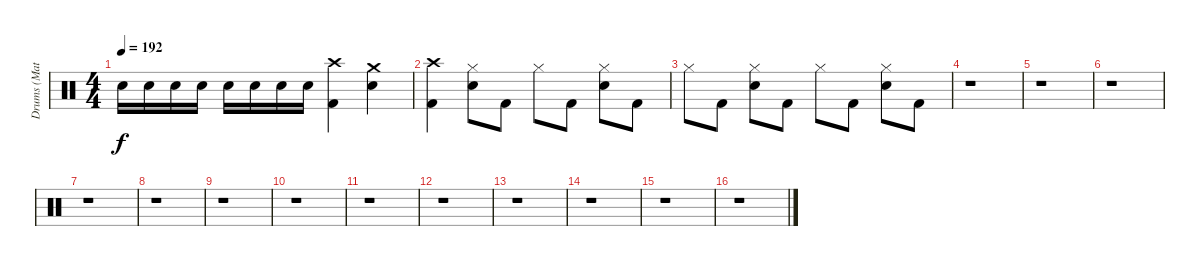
\track ("Drums (Matt)" "Drums (Mat") {instrument percussion}
\staff {score}
\articulation defaults
\ts (4 4)
\tempo 192
\clef neutral
\ks c "Snare (hit) 2".16{dy f} "Snare (hit) 2".16 "Snare (hit) 2".16 "Snare (hit) 2".16 "Snare (hit) 2".16 "Snare (hit) 2".16 "Snare (hit) 2".16 "Snare (hit) 2".16
("Crash high (hit)" "Kick (hit) 2").4 ("Crash medium (hit)" "Snare (hit) 2").4 |
("Crash high (hit)" "Kick (hit) 2").4{volume 2} ("Hi-Hat (closed)" "Snare (hit) 2").8 "Kick (hit) 2".8 "Hi-Hat (closed)".8 "Kick (hit) 2".8 ("Hi-Hat (closed)" "Snare (hit) 2").8 "Kick (hit) 2".8 |
"Hi-Hat (closed)".8 "Kick (hit) 2".8 ("Hi-Hat (closed)" "Snare (hit) 2").8 "Kick (hit) 2".8 "Hi-Hat (closed)".8 "Kick (hit) 2".8 ("Hi-Hat (closed)" "Snare (hit) 2").8 "Kick (hit) 2".8 |
r.1 |
r.1 |
r.1 |
r.1 |
r.1 |
r.1 |
r.1 |
r.1 |
r.1 |
r.1 |
r.1 |
r.1 |
r.1
